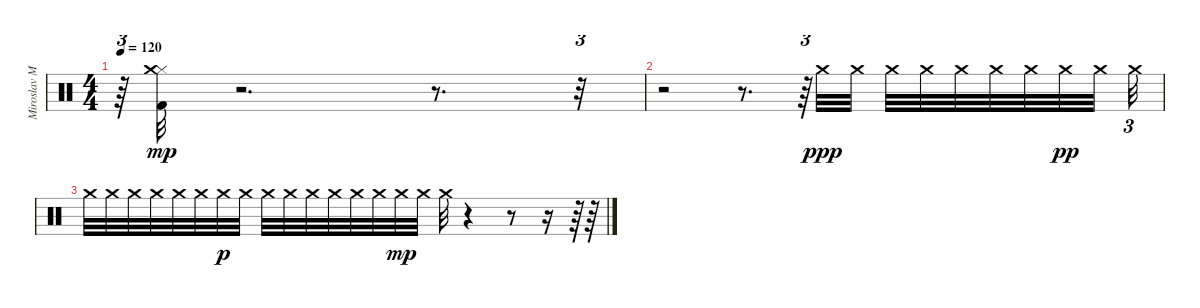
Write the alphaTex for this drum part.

\track ("Miroslav Milatovic-Vicko-bubnjevi" "Miroslav M") {instrument percussion}
\staff {score}
\articulation defaults
\ts (4 4)
\tempo 120
\clef neutral
\ks c
r.64{tu (3 2) dy p} ("Kick (hit) 2" "Hi-Hat (closed)" "Crash medium (hit)").32{dy mp} r.2{d} r.8{d} r.32{tu (3 2)} |
r.2 r.8{d} r.64{tu (3 2)} "Crash medium (hit)".32{dy ppp} "Crash medium (hit)".32 "Crash medium (hit)".32 "Crash medium (hit)".32 "Crash medium (hit)".32 "Crash medium (hit)".32 "Crash medium (hit)".32 "Crash medium (hit)".32{dy pp} "Crash medium (hit)".32{beam splitsecondary} "Crash medium (hit)".32{tu (3 2)} |
"Crash medium (hit)".32 "Crash medium (hit)".32 "Crash medium (hit)".32 "Crash medium (hit)".32 "Crash medium (hit)".32 "Crash medium (hit)".32 "Crash medium (hit)".32{dy p} "Crash medium (hit)".32 "Crash medium (hit)".32 "Crash medium (hit)".32 "Crash medium (hit)".32 "Crash medium (hit)".32 "Crash medium (hit)".32 "Crash medium (hit)".32 "Crash medium (hit)".32{dy mp} "Crash medium (hit)".32 "Crash medium (hit)".32 r.4 r.8 r.16 r.64 r.64
